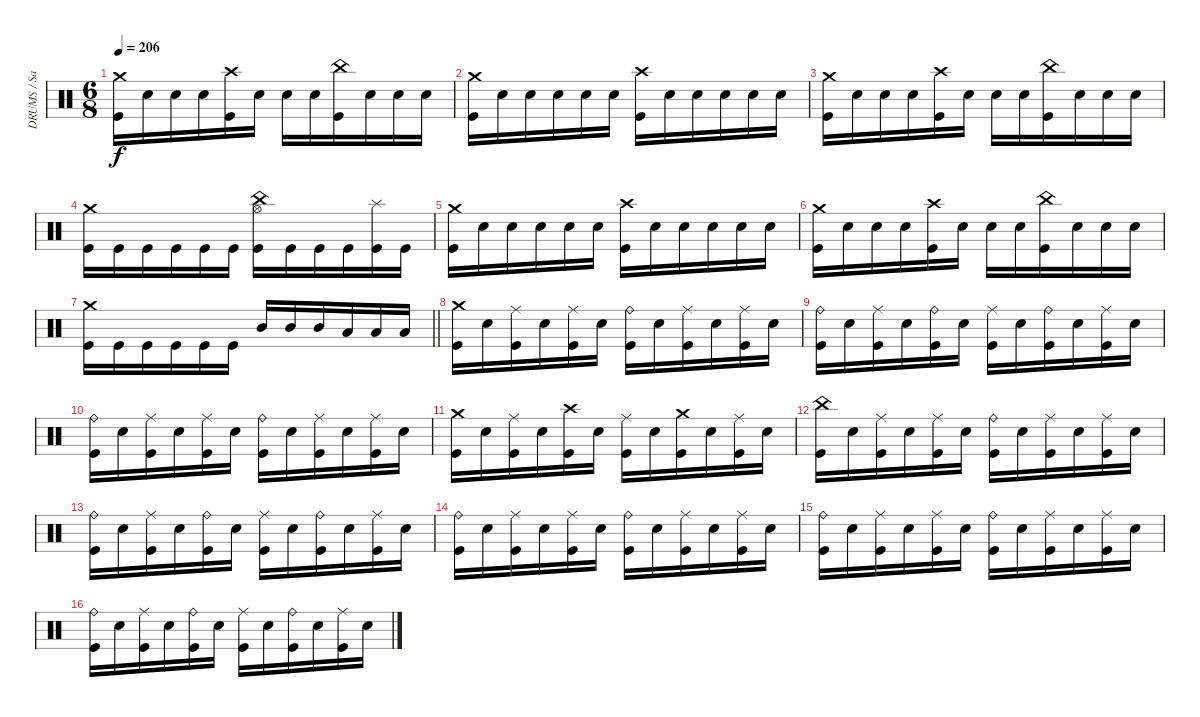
\track ("DRUMS / Sasha" "DRUMS / Sa") {instrument percussion}
\staff {score}
\articulation defaults
\ts (6 8)
\tempo 206
\clef neutral
\ks c
("Kick (hit)" "Crash medium (hit)").16{dy f} "Snare (hit) 2".16 "Snare (hit) 2".16 "Snare (hit) 2".16 ("Kick (hit)" "Crash high (hit)").16 "Snare (hit) 2".16 "Snare (hit) 2".16 "Snare (hit) 2".16 ("Kick (hit)" "China (hit)").16 "Snare (hit) 2".16 "Snare (hit) 2".16 "Snare (hit) 2".16 |
("Kick (hit)" "Crash medium (hit)").16 "Snare (hit) 2".16 "Snare (hit) 2".16 "Snare (hit) 2".16 "Snare (hit) 2".16 "Snare (hit) 2".16 ("Kick (hit)" "Crash high (hit)").16 "Snare (hit) 2".16 "Snare (hit) 2".16 "Snare (hit) 2".16 "Snare (hit) 2".16 "Snare (hit) 2".16 |
("Kick (hit)" "Crash medium (hit)").16 "Snare (hit) 2".16 "Snare (hit) 2".16 "Snare (hit) 2".16 ("Kick (hit)" "Crash high (hit)").16 "Snare (hit) 2".16 "Snare (hit) 2".16 "Snare (hit) 2".16 ("Kick (hit)" "China (hit)").16 "Snare (hit) 2".16 "Snare (hit) 2".16 "Snare (hit) 2".16 |
("Kick (hit)" "Crash medium (hit)").16 "Kick (hit)".16 "Kick (hit)".16 "Kick (hit)".16 "Kick (hit)".16 "Kick (hit)".16 ("Kick (hit)" "Hi-Hat (open)" "China (hit)").16 "Kick (hit)".16 "Kick (hit)".16 "Kick (hit)".16 ("Splash (hit)" "Kick (hit)").16 "Kick (hit)".16 |
("Kick (hit)" "Crash medium (hit)").16 "Snare (hit) 2".16 "Snare (hit) 2".16 "Snare (hit) 2".16 "Snare (hit) 2".16 "Snare (hit) 2".16 ("Kick (hit)" "Crash high (hit)").16 "Snare (hit) 2".16 "Snare (hit) 2".16 "Snare (hit) 2".16 "Snare (hit) 2".16 "Snare (hit) 2".16 |
("Kick (hit)" "Crash medium (hit)").16 "Snare (hit) 2".16 "Snare (hit) 2".16 "Snare (hit) 2".16 ("Kick (hit)" "Crash high (hit)").16 "Snare (hit) 2".16 "Snare (hit) 2".16 "Snare (hit) 2".16 ("Kick (hit)" "China (hit)").16 "Snare (hit) 2".16 "Snare (hit) 2".16 "Snare (hit) 2".16 |
\barLineRight lightlight
("Kick (hit)" "Crash medium (hit)").16 "Kick (hit)".16 "Kick (hit)".16 "Kick (hit)".16 "Kick (hit)".16 "Kick (hit)".16 "Mid Tom (hit)".16 "Mid Tom (hit)".16 "Mid Tom (hit)".16 "Low Tom (hit)".16 "Low Tom (hit)".16 "Low Tom (hit)".16 |
("Kick (hit)" "Crash medium (hit)").16 "Snare (hit) 2".16 ("Kick (hit)" "Ride (middle)").16 "Snare (hit) 2".16 ("Kick (hit)" "Ride (middle)").16 "Snare (hit) 2".16 ("Kick (hit)" "Ride (bell)").16 "Snare (hit) 2".16 ("Kick (hit)" "Ride (middle)").16 "Snare (hit) 2".16 ("Kick (hit)" "Ride (middle)").16 "Snare (hit) 2".16 |
("Kick (hit)" "Ride (bell)").16 "Snare (hit) 2".16 ("Kick (hit)" "Ride (middle)").16 "Snare (hit) 2".16 ("Kick (hit)" "Ride (bell)").16 "Snare (hit) 2".16 ("Kick (hit)" "Ride (middle)").16 "Snare (hit) 2".16 ("Kick (hit)" "Ride (bell)").16 "Snare (hit) 2".16 ("Kick (hit)" "Ride (middle)").16 "Snare (hit) 2".16 |
("Kick (hit)" "Ride (bell)").16 "Snare (hit) 2".16 ("Kick (hit)" "Ride (middle)").16 "Snare (hit) 2".16 ("Kick (hit)" "Ride (middle)").16 "Snare (hit) 2".16 ("Kick (hit)" "Ride (bell)").16 "Snare (hit) 2".16 ("Kick (hit)" "Ride (middle)").16 "Snare (hit) 2".16 ("Kick (hit)" "Ride (middle)").16 "Snare (hit) 2".16 |
("Kick (hit)" "Crash medium (hit)").16 "Snare (hit) 2".16 ("Kick (hit)" "Ride (middle)").16 "Snare (hit) 2".16 ("Kick (hit)" "Crash high (hit)").16 "Snare (hit) 2".16 ("Kick (hit)" "Ride (middle)").16 "Snare (hit) 2".16 ("Kick (hit)" "Crash medium (hit)").16 "Snare (hit) 2".16 ("Kick (hit)" "Ride (middle)").16 "Snare (hit) 2".16 |
("Kick (hit)" "China (hit)").16 "Snare (hit) 2".16 ("Kick (hit)" "Ride (middle)").16 "Snare (hit) 2".16 ("Kick (hit)" "Ride (middle)").16 "Snare (hit) 2".16 ("Kick (hit)" "Ride (bell)").16 "Snare (hit) 2".16 ("Kick (hit)" "Ride (middle)").16 "Snare (hit) 2".16 ("Kick (hit)" "Ride (middle)").16 "Snare (hit) 2".16 |
("Kick (hit)" "Ride (bell)").16 "Snare (hit) 2".16 ("Kick (hit)" "Ride (middle)").16 "Snare (hit) 2".16 ("Kick (hit)" "Ride (bell)").16 "Snare (hit) 2".16 ("Kick (hit)" "Ride (middle)").16 "Snare (hit) 2".16 ("Kick (hit)" "Ride (bell)").16 "Snare (hit) 2".16 ("Kick (hit)" "Ride (middle)").16 "Snare (hit) 2".16 |
("Kick (hit)" "Ride (bell)").16 "Snare (hit) 2".16 ("Kick (hit)" "Ride (middle)").16 "Snare (hit) 2".16 ("Kick (hit)" "Ride (middle)").16 "Snare (hit) 2".16 ("Kick (hit)" "Ride (bell)").16 "Snare (hit) 2".16 ("Kick (hit)" "Ride (middle)").16 "Snare (hit) 2".16 ("Kick (hit)" "Ride (middle)").16 "Snare (hit) 2".16 |
("Kick (hit)" "Ride (bell)").16 "Snare (hit) 2".16 ("Kick (hit)" "Ride (middle)").16 "Snare (hit) 2".16 ("Kick (hit)" "Ride (middle)").16 "Snare (hit) 2".16 ("Kick (hit)" "Ride (bell)").16 "Snare (hit) 2".16 ("Kick (hit)" "Ride (middle)").16 "Snare (hit) 2".16 ("Kick (hit)" "Ride (middle)").16 "Snare (hit) 2".16 |
("Kick (hit)" "Ride (bell)").16 "Snare (hit) 2".16 ("Kick (hit)" "Ride (middle)").16 "Snare (hit) 2".16 ("Kick (hit)" "Ride (bell)").16 "Snare (hit) 2".16 ("Kick (hit)" "Ride (middle)").16 "Snare (hit) 2".16 ("Kick (hit)" "Ride (bell)").16 "Snare (hit) 2".16 ("Kick (hit)" "Ride (middle)").16 "Snare (hit) 2".16
